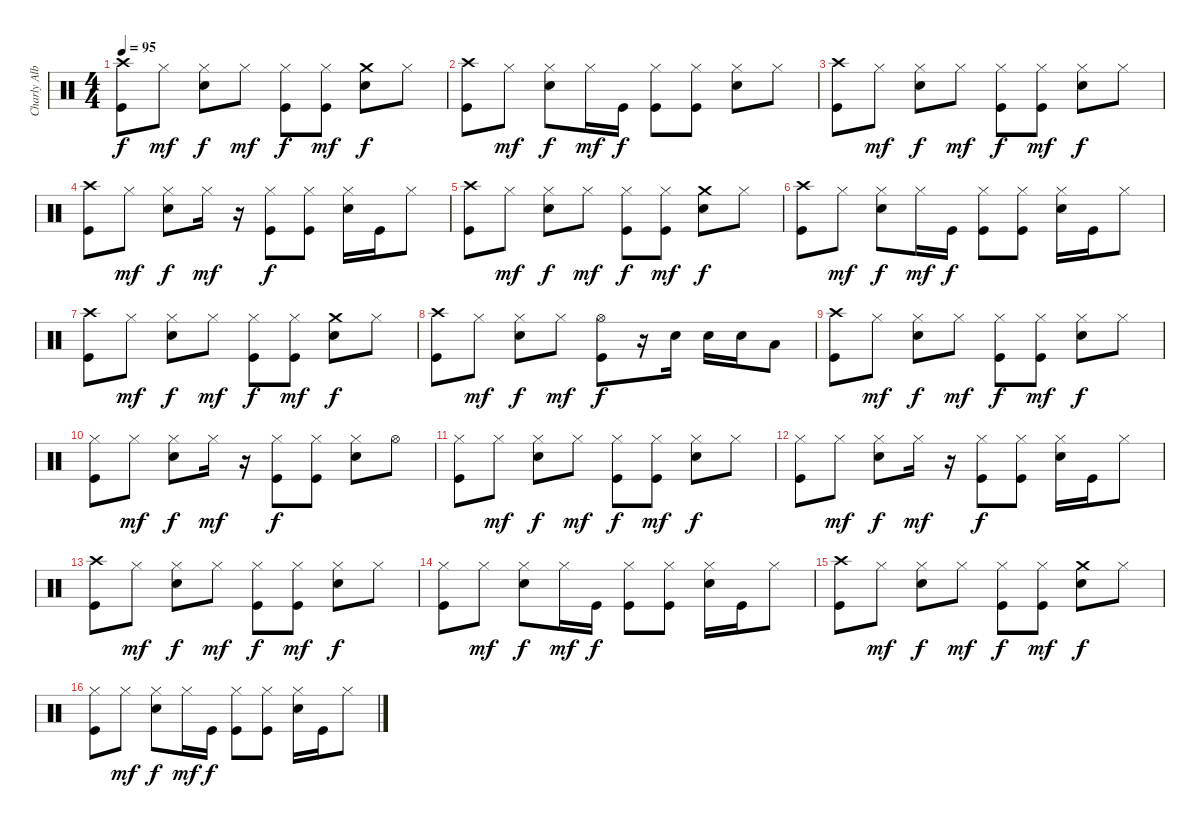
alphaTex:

\track ("Charly Alberti BATERIA" "Charly Alb") {instrument percussion}
\staff {score}
\articulation defaults
\ts (4 4)
\tempo 95
\clef neutral
\ks c
("Kick (hit)" "Crash high (hit)").8{dy f} "Hi-Hat (closed)".8{dy mf} ("Electric Snare (hit)" "Hi-Hat (closed)").8{dy f} "Hi-Hat (closed)".8{dy mf} ("Kick (hit)" "Hi-Hat (closed)").8{dy f} ("Kick (hit)" "Hi-Hat (closed)").8{dy mf} ("Electric Snare (hit)" "Crash medium (hit)").8{dy f} "Hi-Hat (closed)".8 |
("Kick (hit)" "Crash high (hit)").8 "Hi-Hat (closed)".8{dy mf} ("Electric Snare (hit)" "Hi-Hat (closed)").8{dy f} "Hi-Hat (closed)".16{dy mf} "Kick (hit)".16{dy f} ("Kick (hit)" "Hi-Hat (closed)").8 ("Kick (hit)" "Hi-Hat (closed)").8 ("Electric Snare (hit)" "Hi-Hat (closed)").8 "Hi-Hat (closed)".8 |
("Kick (hit)" "Crash high (hit)").8 "Hi-Hat (closed)".8{dy mf} ("Electric Snare (hit)" "Hi-Hat (closed)").8{dy f} "Hi-Hat (closed)".8{dy mf} ("Kick (hit)" "Hi-Hat (closed)").8{dy f} ("Kick (hit)" "Hi-Hat (closed)").8{dy mf} ("Electric Snare (hit)" "Hi-Hat (closed)").8{dy f} "Hi-Hat (closed)".8 |
("Kick (hit)" "Crash high (hit)").8 "Hi-Hat (closed)".8{dy mf} ("Electric Snare (hit)" "Hi-Hat (closed)").8{dy f} "Hi-Hat (closed)".16{dy mf} r.16 ("Kick (hit)" "Hi-Hat (closed)").8{dy f} ("Kick (hit)" "Hi-Hat (closed)").8 ("Electric Snare (hit)" "Hi-Hat (closed)").16 "Kick (hit)".16 "Hi-Hat (closed)".8 |
("Kick (hit)" "Crash high (hit)").8 "Hi-Hat (closed)".8{dy mf} ("Electric Snare (hit)" "Hi-Hat (closed)").8{dy f} "Hi-Hat (closed)".8{dy mf} ("Kick (hit)" "Hi-Hat (closed)").8{dy f} ("Kick (hit)" "Hi-Hat (closed)").8{dy mf} ("Electric Snare (hit)" "Crash medium (hit)").8{dy f} "Hi-Hat (closed)".8 |
("Kick (hit)" "Crash high (hit)").8 "Hi-Hat (closed)".8{dy mf} ("Electric Snare (hit)" "Hi-Hat (closed)").8{dy f} "Hi-Hat (closed)".16{dy mf} "Kick (hit)".16{dy f} ("Kick (hit)" "Hi-Hat (closed)").8 ("Kick (hit)" "Hi-Hat (closed)").8 ("Electric Snare (hit)" "Hi-Hat (closed)").16 "Kick (hit)".16 "Hi-Hat (closed)".8 |
("Kick (hit)" "Crash high (hit)").8 "Hi-Hat (closed)".8{dy mf} ("Electric Snare (hit)" "Hi-Hat (closed)").8{dy f} "Hi-Hat (closed)".8{dy mf} ("Kick (hit)" "Hi-Hat (closed)").8{dy f} ("Kick (hit)" "Hi-Hat (closed)").8{dy mf} ("Electric Snare (hit)" "Crash medium (hit)").8{dy f} "Hi-Hat (closed)".8 |
("Kick (hit)" "Crash high (hit)").8 "Hi-Hat (closed)".8{dy mf} ("Electric Snare (hit)" "Hi-Hat (closed)").8{dy f} "Hi-Hat (closed)".8{dy mf} ("Kick (hit)" "Hi-Hat (open)").8{dy f} r.16 "Electric Snare (hit)".16 "Electric Snare (hit)".16 "Electric Snare (hit)".16 "Low Tom (hit)".8 |
("Kick (hit)" "Crash high (hit)").8 "Hi-Hat (closed)".8{dy mf} ("Electric Snare (hit)" "Hi-Hat (closed)").8{dy f} "Hi-Hat (closed)".8{dy mf} ("Kick (hit)" "Hi-Hat (closed)").8{dy f} ("Kick (hit)" "Hi-Hat (closed)").8{dy mf} ("Electric Snare (hit)" "Hi-Hat (closed)").8{dy f} "Hi-Hat (closed)".8 |
("Kick (hit)" "Hi-Hat (closed)").8 "Hi-Hat (closed)".8{dy mf} ("Electric Snare (hit)" "Hi-Hat (closed)").8{dy f} "Hi-Hat (closed)".16{dy mf} r.16 ("Kick (hit)" "Hi-Hat (closed)").8{dy f} ("Kick (hit)" "Hi-Hat (closed)").8 ("Electric Snare (hit)" "Hi-Hat (closed)").8 "Hi-Hat (open)".8 |
("Kick (hit)" "Hi-Hat (closed)").8 "Hi-Hat (closed)".8{dy mf} ("Electric Snare (hit)" "Hi-Hat (closed)").8{dy f} "Hi-Hat (closed)".8{dy mf} ("Kick (hit)" "Hi-Hat (closed)").8{dy f} ("Kick (hit)" "Hi-Hat (closed)").8{dy mf} ("Electric Snare (hit)" "Hi-Hat (closed)").8{dy f} "Hi-Hat (closed)".8 |
("Kick (hit)" "Hi-Hat (closed)").8 "Hi-Hat (closed)".8{dy mf} ("Electric Snare (hit)" "Hi-Hat (closed)").8{dy f} "Hi-Hat (closed)".16{dy mf} r.16 ("Kick (hit)" "Hi-Hat (closed)").8{dy f} ("Kick (hit)" "Hi-Hat (closed)").8 ("Electric Snare (hit)" "Hi-Hat (closed)").16 "Kick (hit)".16 "Hi-Hat (closed)".8 |
("Kick (hit)" "Crash high (hit)").8 "Hi-Hat (closed)".8{dy mf} ("Electric Snare (hit)" "Hi-Hat (closed)").8{dy f} "Hi-Hat (closed)".8{dy mf} ("Kick (hit)" "Hi-Hat (closed)").8{dy f} ("Kick (hit)" "Hi-Hat (closed)").8{dy mf} ("Electric Snare (hit)" "Hi-Hat (closed)").8{dy f} "Hi-Hat (closed)".8 |
("Kick (hit)" "Hi-Hat (closed)").8 "Hi-Hat (closed)".8{dy mf} ("Electric Snare (hit)" "Hi-Hat (closed)").8{dy f} "Hi-Hat (closed)".16{dy mf} "Kick (hit)".16{dy f} ("Kick (hit)" "Hi-Hat (closed)").8 ("Kick (hit)" "Hi-Hat (closed)").8 ("Electric Snare (hit)" "Hi-Hat (closed)").16 "Kick (hit)".16 "Hi-Hat (closed)".8 |
("Kick (hit)" "Crash high (hit)").8 "Hi-Hat (closed)".8{dy mf} ("Electric Snare (hit)" "Hi-Hat (closed)").8{dy f} "Hi-Hat (closed)".8{dy mf} ("Kick (hit)" "Hi-Hat (closed)").8{dy f} ("Kick (hit)" "Hi-Hat (closed)").8{dy mf} ("Electric Snare (hit)" "Crash medium (hit)").8{dy f} "Hi-Hat (closed)".8 |
("Kick (hit)" "Hi-Hat (closed)").8 "Hi-Hat (closed)".8{dy mf} ("Electric Snare (hit)" "Hi-Hat (closed)").8{dy f} "Hi-Hat (closed)".16{dy mf} "Kick (hit)".16{dy f} ("Kick (hit)" "Hi-Hat (closed)").8 ("Kick (hit)" "Hi-Hat (closed)").8 ("Electric Snare (hit)" "Hi-Hat (closed)").16 "Kick (hit)".16 "Hi-Hat (closed)".8
